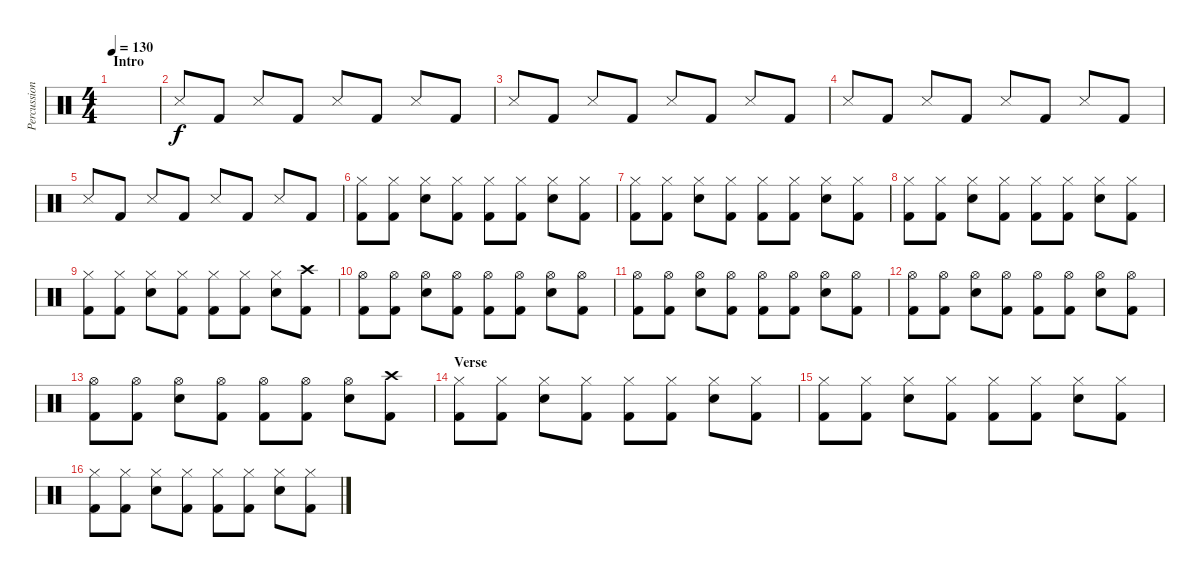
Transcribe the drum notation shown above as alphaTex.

\track ("Percussion" "Percussion") {instrument percussion}
\staff {score}
\articulation defaults
\ts (4 4)
\section ("" "Intro")
\tempo 130
\clef neutral
\ks c
|
"Snare (side stick) 3".8 "Kick (hit) 2".8 "Snare (side stick) 3".8 "Kick (hit) 2".8 "Snare (side stick) 3".8 "Kick (hit) 2".8 "Snare (side stick) 3".8 "Kick (hit) 2".8 |
"Snare (side stick) 3".8 "Kick (hit) 2".8 "Snare (side stick) 3".8 "Kick (hit) 2".8 "Snare (side stick) 3".8 "Kick (hit) 2".8 "Snare (side stick) 3".8 "Kick (hit) 2".8 |
"Snare (side stick) 3".8 "Kick (hit) 2".8 "Snare (side stick) 3".8 "Kick (hit) 2".8 "Snare (side stick) 3".8 "Kick (hit) 2".8 "Snare (side stick) 3".8 "Kick (hit) 2".8 |
"Snare (side stick) 3".8 "Kick (hit) 2".8 "Snare (side stick) 3".8 "Kick (hit) 2".8 "Snare (side stick) 3".8 "Kick (hit) 2".8 "Snare (side stick) 3".8 "Kick (hit) 2".8 |
("Hi-Hat (closed)" "Kick (hit) 2").8 ("Hi-Hat (closed)" "Kick (hit) 2").8 ("Hi-Hat (closed)" "Electric Snare (hit)").8 ("Hi-Hat (closed)" "Kick (hit) 2").8 ("Hi-Hat (closed)" "Kick (hit) 2").8 ("Hi-Hat (closed)" "Kick (hit) 2").8 ("Hi-Hat (closed)" "Electric Snare (hit)").8 ("Hi-Hat (closed)" "Kick (hit) 2").8 |
("Hi-Hat (closed)" "Kick (hit) 2").8 ("Hi-Hat (closed)" "Kick (hit) 2").8 ("Hi-Hat (closed)" "Electric Snare (hit)").8 ("Hi-Hat (closed)" "Kick (hit) 2").8 ("Hi-Hat (closed)" "Kick (hit) 2").8 ("Hi-Hat (closed)" "Kick (hit) 2").8 ("Hi-Hat (closed)" "Electric Snare (hit)").8 ("Hi-Hat (closed)" "Kick (hit) 2").8 |
("Hi-Hat (closed)" "Kick (hit) 2").8 ("Hi-Hat (closed)" "Kick (hit) 2").8 ("Hi-Hat (closed)" "Electric Snare (hit)").8 ("Hi-Hat (closed)" "Kick (hit) 2").8 ("Hi-Hat (closed)" "Kick (hit) 2").8 ("Hi-Hat (closed)" "Kick (hit) 2").8 ("Hi-Hat (closed)" "Electric Snare (hit)").8 ("Hi-Hat (closed)" "Kick (hit) 2").8 |
("Hi-Hat (closed)" "Kick (hit) 2").8 ("Hi-Hat (closed)" "Kick (hit) 2").8 ("Hi-Hat (closed)" "Electric Snare (hit)").8 ("Hi-Hat (closed)" "Kick (hit) 2").8 ("Hi-Hat (closed)" "Kick (hit) 2").8 ("Hi-Hat (closed)" "Kick (hit) 2").8 ("Hi-Hat (closed)" "Electric Snare (hit)").8 ("Crash high (hit)" "Kick (hit) 2").8 |
("Hi-Hat (open)" "Kick (hit) 2").8 ("Hi-Hat (open)" "Kick (hit) 2").8 ("Hi-Hat (open)" "Electric Snare (hit)").8 ("Hi-Hat (open)" "Kick (hit) 2").8 ("Hi-Hat (open)" "Kick (hit) 2").8 ("Hi-Hat (open)" "Kick (hit) 2").8 ("Hi-Hat (open)" "Electric Snare (hit)").8 ("Hi-Hat (open)" "Kick (hit) 2").8 |
("Hi-Hat (open)" "Kick (hit) 2").8 ("Hi-Hat (open)" "Kick (hit) 2").8 ("Hi-Hat (open)" "Electric Snare (hit)").8 ("Hi-Hat (open)" "Kick (hit) 2").8 ("Hi-Hat (open)" "Kick (hit) 2").8 ("Hi-Hat (open)" "Kick (hit) 2").8 ("Hi-Hat (open)" "Electric Snare (hit)").8 ("Hi-Hat (open)" "Kick (hit) 2").8 |
("Hi-Hat (open)" "Kick (hit) 2").8 ("Hi-Hat (open)" "Kick (hit) 2").8 ("Hi-Hat (open)" "Electric Snare (hit)").8 ("Hi-Hat (open)" "Kick (hit) 2").8 ("Hi-Hat (open)" "Kick (hit) 2").8 ("Hi-Hat (open)" "Kick (hit) 2").8 ("Hi-Hat (open)" "Electric Snare (hit)").8 ("Hi-Hat (open)" "Kick (hit) 2").8 |
("Hi-Hat (open)" "Kick (hit) 2").8 ("Hi-Hat (open)" "Kick (hit) 2").8 ("Hi-Hat (open)" "Electric Snare (hit)").8 ("Hi-Hat (open)" "Kick (hit) 2").8 ("Hi-Hat (open)" "Kick (hit) 2").8 ("Hi-Hat (open)" "Kick (hit) 2").8 ("Hi-Hat (open)" "Electric Snare (hit)").8 ("Crash high (hit)" "Kick (hit) 2").8 |
\section ("" "Verse")
("Hi-Hat (closed)" "Kick (hit) 2").8 ("Hi-Hat (closed)" "Kick (hit) 2").8 ("Hi-Hat (closed)" "Electric Snare (hit)").8 ("Hi-Hat (closed)" "Kick (hit) 2").8 ("Hi-Hat (closed)" "Kick (hit) 2").8 ("Hi-Hat (closed)" "Kick (hit) 2").8 ("Hi-Hat (closed)" "Electric Snare (hit)").8 ("Hi-Hat (closed)" "Kick (hit) 2").8 |
("Hi-Hat (closed)" "Kick (hit) 2").8 ("Hi-Hat (closed)" "Kick (hit) 2").8 ("Hi-Hat (closed)" "Electric Snare (hit)").8 ("Hi-Hat (closed)" "Kick (hit) 2").8 ("Hi-Hat (closed)" "Kick (hit) 2").8 ("Hi-Hat (closed)" "Kick (hit) 2").8 ("Hi-Hat (closed)" "Electric Snare (hit)").8 ("Hi-Hat (closed)" "Kick (hit) 2").8 |
("Hi-Hat (closed)" "Kick (hit) 2").8 ("Hi-Hat (closed)" "Kick (hit) 2").8 ("Hi-Hat (closed)" "Electric Snare (hit)").8 ("Hi-Hat (closed)" "Kick (hit) 2").8 ("Hi-Hat (closed)" "Kick (hit) 2").8 ("Hi-Hat (closed)" "Kick (hit) 2").8 ("Hi-Hat (closed)" "Electric Snare (hit)").8 ("Hi-Hat (closed)" "Kick (hit) 2").8
